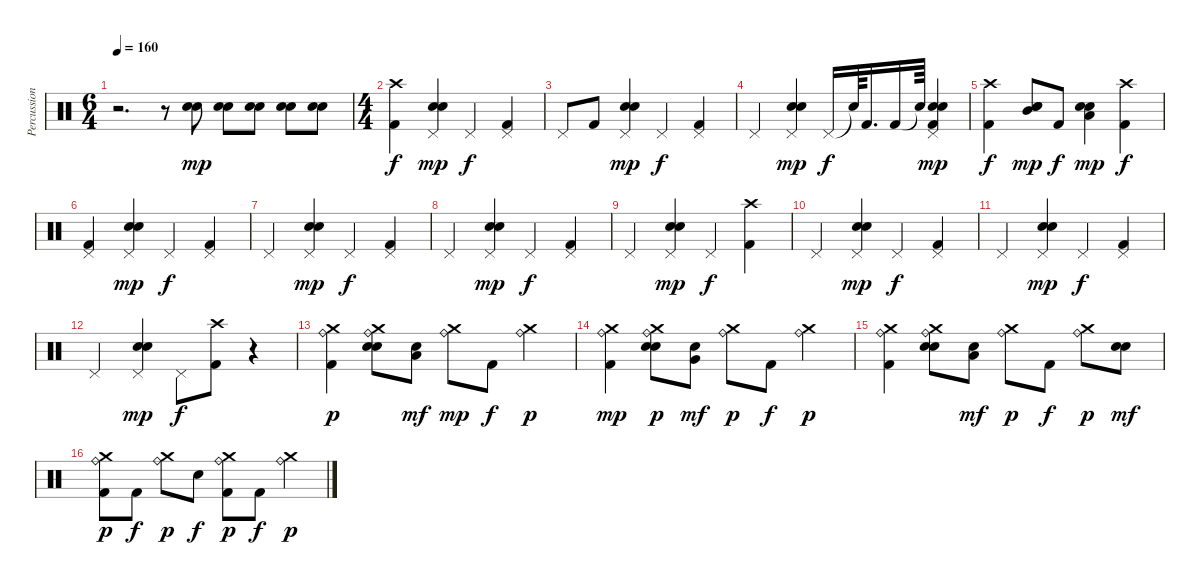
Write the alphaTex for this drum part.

\track ("Percussion" "Percussion") {instrument percussion}
\staff {score}
\articulation defaults
\ts (6 4)
\tempo 160
\clef neutral
\ks c
r.2{d dy f} r.8 ("Electric Snare (hit)" "Snare (hit) 2").8{dy mp} ("Electric Snare (hit)" "Snare (hit) 2").8 ("Electric Snare (hit)" "Snare (hit) 2").8 ("Electric Snare (hit)" "Snare (hit) 2").8 ("Electric Snare (hit)" "Snare (hit) 2").8 |
\ts (4 4)
("Crash high (hit)" "Kick (hit) 2").4{dy f} ("Pedal Hi-Hat (hit)" "Snare (hit) 2" "Electric Snare (hit)").4{dy mp} "Pedal Hi-Hat (hit)".4{dy f} ("Pedal Hi-Hat (hit)" "Kick (hit) 2").4 |
"Pedal Hi-Hat (hit)".8 "Kick (hit) 2".8 ("Pedal Hi-Hat (hit)" "Snare (hit) 2" "Electric Snare (hit)").4{dy mp} "Pedal Hi-Hat (hit)".4{dy f} ("Pedal Hi-Hat (hit)" "Kick (hit) 2").4 |
"Pedal Hi-Hat (hit)".4 ("Pedal Hi-Hat (hit)" "Snare (hit) 2" "Electric Snare (hit)").4{dy mp} "Pedal Hi-Hat (hit)".16{dy f} "Snare (hit)"{t}.64 "Kick (hit) 2".16{d} "Kick (hit) 2".16 "Snare (hit)"{t}.64 ("Pedal Hi-Hat (hit)" "Snare (hit) 2" "Kick (hit) 2" "Electric Snare (hit)").4{dy mp} |
("Kick (hit) 2" "Crash high (hit)").4{dy f} ("Mid Tom (hit)" "Snare (hit) 2" "Electric Snare (hit)").8{dy mp} "Kick (hit) 2".8{dy f} ("Low Tom (hit)" "Snare (hit) 2" "Electric Snare (hit)").4{dy mp} ("Crash high (hit)" "Kick (hit) 2").4{dy f} |
("Pedal Hi-Hat (hit)" "Kick (hit) 2").4 ("Pedal Hi-Hat (hit)" "Snare (hit) 2" "Electric Snare (hit)").4{dy mp} "Pedal Hi-Hat (hit)".4{dy f} ("Kick (hit) 2" "Pedal Hi-Hat (hit)").4 |
"Pedal Hi-Hat (hit)".4 ("Snare (hit) 2" "Pedal Hi-Hat (hit)" "Electric Snare (hit)").4{dy mp} "Pedal Hi-Hat (hit)".4{dy f} ("Kick (hit) 2" "Pedal Hi-Hat (hit)").4 |
"Pedal Hi-Hat (hit)".4 ("Snare (hit) 2" "Pedal Hi-Hat (hit)" "Electric Snare (hit)").4{dy mp} "Pedal Hi-Hat (hit)".4{dy f} ("Kick (hit) 2" "Pedal Hi-Hat (hit)").4 |
"Pedal Hi-Hat (hit)".4 ("Snare (hit) 2" "Pedal Hi-Hat (hit)" "Electric Snare (hit)").4{dy mp} "Pedal Hi-Hat (hit)".4{dy f} ("Crash high (hit)" "Kick (hit) 2").4 |
"Pedal Hi-Hat (hit)".4 ("Pedal Hi-Hat (hit)" "Snare (hit) 2" "Electric Snare (hit)").4{dy mp} "Pedal Hi-Hat (hit)".4{dy f} ("Kick (hit) 2" "Pedal Hi-Hat (hit)").4 |
"Pedal Hi-Hat (hit)".4 ("Snare (hit) 2" "Pedal Hi-Hat (hit)" "Electric Snare (hit)").4{dy mp} "Pedal Hi-Hat (hit)".4{dy f} ("Pedal Hi-Hat (hit)" "Kick (hit) 2").4 |
"Pedal Hi-Hat (hit)".4 ("Pedal Hi-Hat (hit)" "Snare (hit) 2" "Electric Snare (hit)").4{dy mp} "Pedal Hi-Hat (hit)".8{dy f} ("Crash high (hit)" "Kick (hit) 2").8 r.4 |
("Kick (hit) 2" "Ride (bell)" "Crash medium (hit)").4{dy p} ("Snare (hit) 2" "Ride (bell)" "Electric Snare (hit)" "Crash medium (hit)").8 ("Low Floor Tom (hit)" "Snare (hit) 2").8{dy mf} ("Ride (bell)" "Crash medium (hit)").8{dy mp} "Kick (hit) 2".8{dy f} ("Ride (bell)" "Crash medium (hit)").4{dy p} |
("Kick (hit) 2" "Ride (bell)" "Crash medium (hit)").4{dy mp} ("Snare (hit) 2" "Ride (bell)" "Electric Snare (hit)" "Crash medium (hit)").8{dy p} ("Very Low Tom (hit)" "Snare (hit) 2").8{dy mf} ("Ride (bell)" "Crash medium (hit)").8{dy p} "Kick (hit) 2".8{dy f} ("Ride (bell)" "Crash medium (hit)").4{dy p} |
("Kick (hit) 2" "Ride (bell)" "Crash medium (hit)").4 ("Snare (hit) 2" "Ride (bell)" "Electric Snare (hit)" "Crash medium (hit)").8 ("Low Floor Tom (hit)" "Snare (hit) 2").8{dy mf} ("Ride (bell)" "Crash medium (hit)").8{dy p} "Kick (hit) 2".8{dy f} ("Ride (bell)" "Crash medium (hit)").8{dy p} ("Snare (hit) 2" "Electric Snare (hit)").8{dy mf} |
("Ride (bell)" "Kick (hit) 2" "Crash medium (hit)").8{dy p} "Kick (hit) 2".8{dy f} ("Ride (bell)" "Crash medium (hit)").8{dy p} "Snare (hit) 2".8{dy f} ("Ride (bell)" "Kick (hit) 2" "Crash medium (hit)").8{dy p} "Kick (hit) 2".8{dy f} ("Ride (bell)" "Crash medium (hit)").4{dy p}
